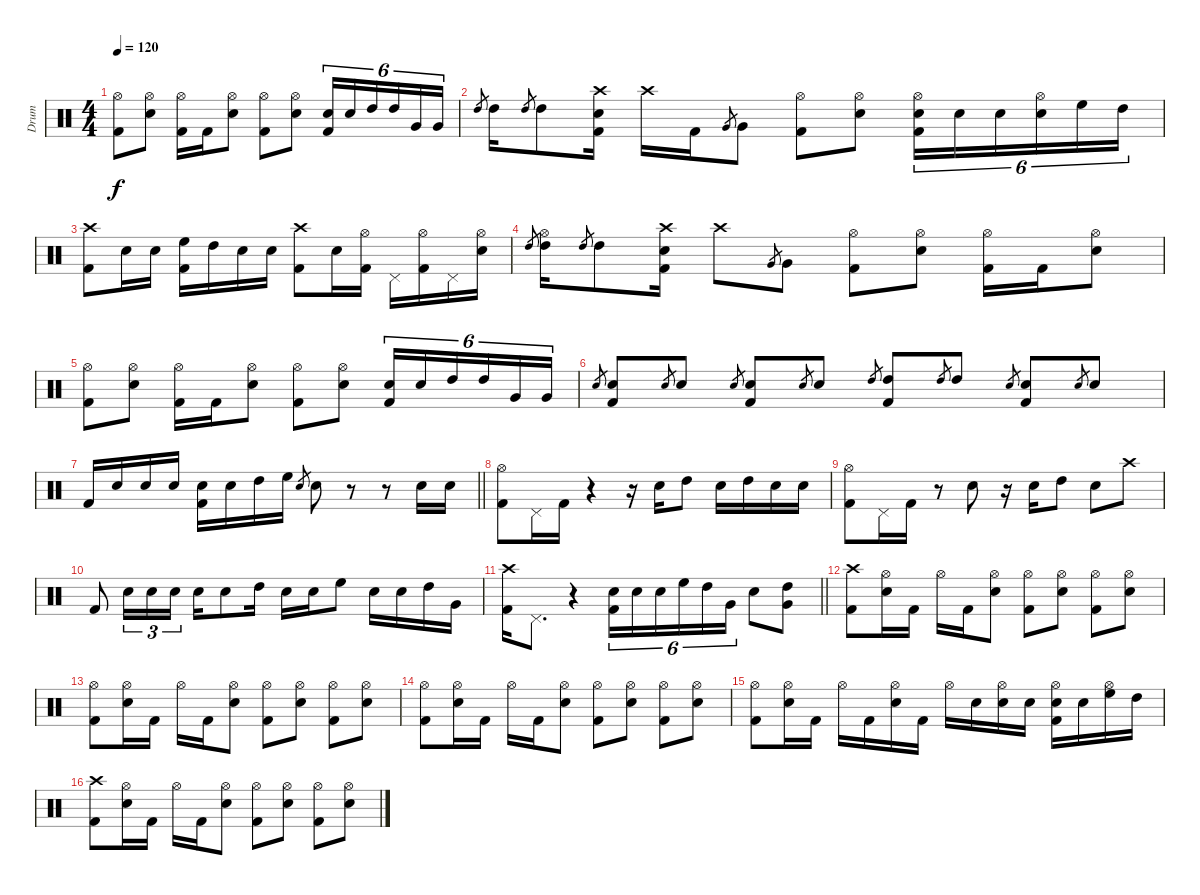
\track ("Drum" "Drum") {instrument percussion}
\staff {score}
\articulation defaults
\ts (4 4)
\tempo 120
\clef neutral
\ks c
("Hi-Hat (open)" "Kick (hit) 2").8{dy f} ("Hi-Hat (open)" "Snare (hit) 2").8 ("Hi-Hat (open)" "Kick (hit) 2").16 "Kick (hit) 2".16 ("Hi-Hat (open)" "Snare (hit) 2").8 ("Hi-Hat (open)" "Kick (hit) 2").8 ("Hi-Hat (open)" "Snare (hit) 2").8 ("Snare (hit) 2" "Kick (hit) 2").16{tu (6 4)} "Snare (hit) 2".16{tu (6 4)} "High Tom (hit)".16{tu (6 4)} "High Tom (hit)".16{tu (6 4)} "Very Low Tom (hit)".16{tu (6 4)} "Very Low Tom (hit)".16{tu (6 4)} |
"High Tom (hit)".8{gr} "High Tom (hit)".16 "High Tom (hit)".8{gr} "High Tom (hit)".8 ("Crash high (hit)" "Snare (hit) 2" "Kick (hit) 2").16 "Crash high (hit)".16 "Kick (hit) 2".16 "Very Low Tom (hit)".8{gr} "Very Low Tom (hit)".8 ("Hi-Hat (open)" "Kick (hit) 2").8 ("Hi-Hat (open)" "Snare (hit) 2").8 ("Hi-Hat (open)" "Snare (hit) 2" "Kick (hit) 2").16{tu (6 4)} "Snare (hit) 2".16{tu (6 4)} "Snare (hit) 2".16{tu (6 4)} ("Hi-Hat (open)" "Snare (hit) 2").16{tu (6 4)} "High Floor Tom (hit)".16{tu (6 4)} "High Tom (hit)".16{tu (6 4)} |
("Crash high (hit)" "Kick (hit) 2").8 "Snare (hit) 2".16 "Snare (hit) 2".16 ("High Floor Tom (hit)" "Kick (hit) 2").16 "High Tom (hit)".16 "Snare (hit) 2".16 "Snare (hit) 2".16 ("Crash high (hit)" "Kick (hit) 2").8 "Snare (hit) 2".16 ("Hi-Hat (open)" "Kick (hit) 2").16 "Pedal Hi-Hat (hit)".16 ("Hi-Hat (open)" "Kick (hit) 2").16 "Pedal Hi-Hat (hit)".16 ("Hi-Hat (open)" "Snare (hit) 2").16 |
"High Tom (hit)".8{gr} ("Hi-Hat (open)" "High Tom (hit)").16 "High Tom (hit)".8{gr} "High Tom (hit)".8 ("Crash high (hit)" "Snare (hit) 2" "Kick (hit) 2").16 "Crash high (hit)".8 "Very Low Tom (hit)".8{gr} "Very Low Tom (hit)".8 ("Hi-Hat (open)" "Kick (hit) 2").8 ("Hi-Hat (open)" "Snare (hit) 2").8 ("Hi-Hat (open)" "Kick (hit) 2").16 "Kick (hit) 2".16 ("Hi-Hat (open)" "Snare (hit) 2").8 |
("Hi-Hat (open)" "Kick (hit) 2").8 ("Hi-Hat (open)" "Snare (hit) 2").8 ("Hi-Hat (open)" "Kick (hit) 2").16 "Kick (hit) 2".16 ("Hi-Hat (open)" "Snare (hit) 2").8 ("Hi-Hat (open)" "Kick (hit) 2").8 ("Hi-Hat (open)" "Snare (hit) 2").8 ("Snare (hit) 2" "Kick (hit) 2").16{tu (6 4)} "Snare (hit) 2".16{tu (6 4)} "High Tom (hit)".16{tu (6 4)} "High Tom (hit)".16{tu (6 4)} "Very Low Tom (hit)".16{tu (6 4)} "Very Low Tom (hit)".16{tu (6 4)} |
"Snare (hit) 2".8{gr} ("Snare (hit) 2" "Kick (hit) 2").8 "Snare (hit) 2".8{gr} "Snare (hit) 2".8 "Snare (hit) 2".8{gr} ("Snare (hit) 2" "Kick (hit) 2").8 "Snare (hit) 2".8{gr} "Snare (hit) 2".8 "High Tom (hit)".8{gr} ("High Tom (hit)" "Kick (hit) 2").8 "High Tom (hit)".8{gr} "High Tom (hit)".8 "Snare (hit) 2".8{gr} ("Snare (hit) 2" "Kick (hit) 2").8 "Snare (hit) 2".8{gr} "Snare (hit) 2".8 |
\barLineRight lightlight "Kick (hit) 2".16 "Snare (hit) 2".16 "Snare (hit) 2".16 "Snare (hit) 2".16
("Snare (hit) 2" "Kick (hit) 2").16 "Snare (hit) 2".16 "High Tom (hit)".16 "High Floor Tom (hit)".16 "Snare (hit) 2".8{gr} "Snare (hit) 2".8 r.8 r.8 "Snare (hit) 2".16 "Snare (hit) 2".16 |
("Hi-Hat (open)" "Kick (hit) 2").8 "Pedal Hi-Hat (hit)".16 "Kick (hit) 2".16 r.4 r.16 "Snare (hit) 2".16 "High Tom (hit)".8 "Snare (hit) 2".16 "High Tom (hit)".16 "Snare (hit) 2".16 "Snare (hit) 2".16 |
("Hi-Hat (open)" "Kick (hit) 2").8 "Pedal Hi-Hat (hit)".16 "Kick (hit) 2".16 r.8 "Snare (hit) 2".8 r.16 "Snare (hit) 2".16 "High Tom (hit)".8 "Snare (hit) 2".8 "Crash high (hit)".8 |
"Kick (hit) 2".8 "Snare (hit) 2".16{tu (3 2)} "Snare (hit) 2".16{tu (3 2)} "Snare (hit) 2".16{tu (3 2)} "Snare (hit) 2".16 "Snare (hit) 2".8 "High Tom (hit)".16 "Snare (hit) 2".16 "Snare (hit) 2".16 "High Floor Tom (hit)".8 "Snare (hit) 2".16 "Snare (hit) 2".16 "High Tom (hit)".16 "Very Low Tom (hit)".16 |
\barLineRight lightlight
("Crash high (hit)" "Kick (hit) 2").16 "Pedal Hi-Hat (hit)".8{d} r.4 ("Snare (hit) 2" "Kick (hit) 2").16{tu (6 4)} "Snare (hit) 2".16{tu (6 4)} "Snare (hit) 2".16{tu (6 4)} "High Floor Tom (hit)".16{tu (6 4)} "High Tom (hit)".16{tu (6 4)} "Very Low Tom (hit)".16{tu (6 4)} "Snare (hit) 2".8 ("High Tom (hit)" "Very Low Tom (hit)").8 |
("Crash high (hit)" "Kick (hit) 2").8 ("Hi-Hat (open)" "Snare (hit) 2").16 "Kick (hit) 2".16 "Hi-Hat (open)".16 "Kick (hit) 2".16 ("Hi-Hat (open)" "Snare (hit) 2").8 ("Hi-Hat (open)" "Kick (hit) 2").8 ("Hi-Hat (open)" "Snare (hit) 2").8 ("Hi-Hat (open)" "Kick (hit) 2").8 ("Hi-Hat (open)" "Snare (hit) 2").8 |
("Hi-Hat (open)" "Kick (hit) 2").8 ("Hi-Hat (open)" "Snare (hit) 2").16 "Kick (hit) 2".16 "Hi-Hat (open)".16 "Kick (hit) 2".16 ("Hi-Hat (open)" "Snare (hit) 2").8 ("Hi-Hat (open)" "Kick (hit) 2").8 ("Hi-Hat (open)" "Snare (hit) 2").8 ("Hi-Hat (open)" "Kick (hit) 2").8 ("Hi-Hat (open)" "Snare (hit) 2").8 |
("Hi-Hat (open)" "Kick (hit) 2").8 ("Hi-Hat (open)" "Snare (hit) 2").16 "Kick (hit) 2".16 "Hi-Hat (open)".16 "Kick (hit) 2".16 ("Hi-Hat (open)" "Snare (hit) 2").8 ("Hi-Hat (open)" "Kick (hit) 2").8 ("Hi-Hat (open)" "Snare (hit) 2").8 ("Hi-Hat (open)" "Kick (hit) 2").8 ("Hi-Hat (open)" "Snare (hit) 2").8 |
("Hi-Hat (open)" "Kick (hit) 2").8 ("Hi-Hat (open)" "Snare (hit) 2").16 "Kick (hit) 2".16 "Hi-Hat (open)".16 "Kick (hit) 2".16 ("Hi-Hat (open)" "Snare (hit) 2").16 "Kick (hit) 2".16 "Hi-Hat (open)".16 "Snare (hit) 2".16 ("Hi-Hat (open)" "Snare (hit) 2").16 "Snare (hit) 2".16 ("Hi-Hat (open)" "Snare (hit) 2" "Kick (hit) 2").16 "Snare (hit) 2".16 ("Hi-Hat (open)" "High Floor Tom (hit)").16 "High Tom (hit)".16 |
("Crash high (hit)" "Kick (hit) 2").8 ("Hi-Hat (open)" "Snare (hit) 2").16 "Kick (hit) 2".16 "Hi-Hat (open)".16 "Kick (hit) 2".16 ("Hi-Hat (open)" "Snare (hit) 2").8 ("Hi-Hat (open)" "Kick (hit) 2").8 ("Hi-Hat (open)" "Snare (hit) 2").8 ("Hi-Hat (open)" "Kick (hit) 2").8 ("Hi-Hat (open)" "Snare (hit) 2").8
